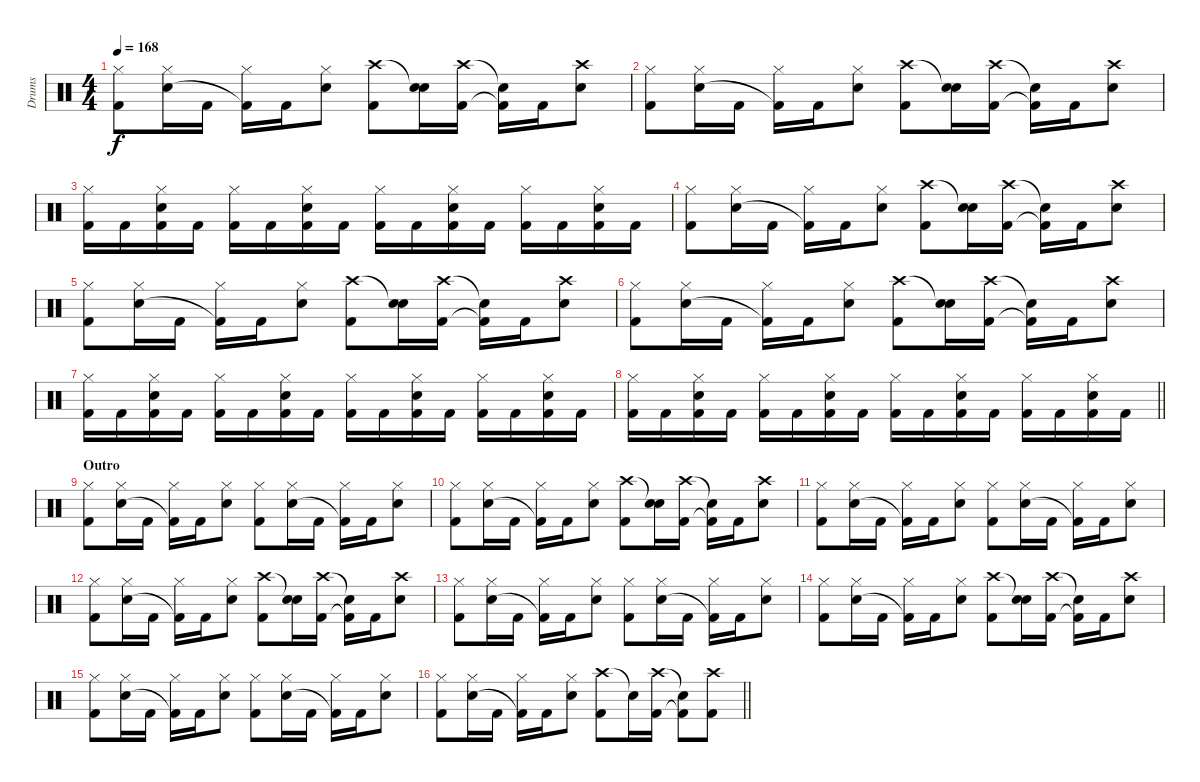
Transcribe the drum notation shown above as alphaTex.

\track ("Drums" "Drums") {instrument percussion}
\staff {score}
\articulation defaults
\ts (4 4)
\tempo 168
\clef neutral
\ks c
("Hi-Hat (closed)" "Kick (hit) 2").8{dy f} ("Hi-Hat (closed)" "Electric Snare (hit)").16 "Kick (hit) 2".16 ("Hi-Hat (closed)" "Kick (hit) 2"{t}).16 "Kick (hit) 2".16 ("Hi-Hat (closed)" "Electric Snare (hit)").8 ("Crash high (hit)" "Kick (hit) 2").8 ("Snare (hit)"{t} "Electric Snare (hit)").16 ("Crash high (hit)" "Kick (hit) 2").16 ("Snare (hit)"{t} "Kick (hit) 2"{t}).16 "Kick (hit) 2".16 ("Crash high (hit)" "Electric Snare (hit)").8 |
("Hi-Hat (closed)" "Kick (hit) 2").8 ("Hi-Hat (closed)" "Electric Snare (hit)").16 "Kick (hit) 2".16 ("Hi-Hat (closed)" "Kick (hit) 2"{t}).16 "Kick (hit) 2".16 ("Hi-Hat (closed)" "Electric Snare (hit)").8 ("Crash high (hit)" "Kick (hit) 2").8 ("Snare (hit)"{t} "Electric Snare (hit)").16 ("Crash high (hit)" "Kick (hit) 2").16 ("Snare (hit)"{t} "Kick (hit) 2"{t}).16 "Kick (hit) 2".16 ("Crash high (hit)" "Electric Snare (hit)").8 |
("Hi-Hat (closed)" "Kick (hit) 2").16 "Kick (hit) 2".16 ("Hi-Hat (closed)" "Electric Snare (hit)" "Kick (hit) 2").16 "Kick (hit) 2".16 ("Hi-Hat (closed)" "Kick (hit) 2").16 "Kick (hit) 2".16 ("Hi-Hat (closed)" "Electric Snare (hit)" "Kick (hit) 2").16 "Kick (hit) 2".16 ("Hi-Hat (closed)" "Kick (hit) 2").16 "Kick (hit) 2".16 ("Hi-Hat (closed)" "Electric Snare (hit)" "Kick (hit) 2").16 "Kick (hit) 2".16 ("Hi-Hat (closed)" "Kick (hit) 2").16 "Kick (hit) 2".16 ("Hi-Hat (closed)" "Electric Snare (hit)" "Kick (hit) 2").16 "Kick (hit) 2".16 |
("Hi-Hat (closed)" "Kick (hit) 2").8 ("Hi-Hat (closed)" "Electric Snare (hit)").16 "Kick (hit) 2".16 ("Hi-Hat (closed)" "Kick (hit) 2"{t}).16 "Kick (hit) 2".16 ("Hi-Hat (closed)" "Electric Snare (hit)").8 ("Crash high (hit)" "Kick (hit) 2").8 ("Snare (hit)"{t} "Electric Snare (hit)").16 ("Crash high (hit)" "Kick (hit) 2").16 ("Snare (hit)"{t} "Kick (hit) 2"{t}).16 "Kick (hit) 2".16 ("Crash high (hit)" "Electric Snare (hit)").8 |
("Hi-Hat (closed)" "Kick (hit) 2").8 ("Hi-Hat (closed)" "Electric Snare (hit)").16 "Kick (hit) 2".16 ("Hi-Hat (closed)" "Kick (hit) 2"{t}).16 "Kick (hit) 2".16 ("Hi-Hat (closed)" "Electric Snare (hit)").8 ("Crash high (hit)" "Kick (hit) 2").8 ("Snare (hit)"{t} "Electric Snare (hit)").16 ("Crash high (hit)" "Kick (hit) 2").16 ("Snare (hit)"{t} "Kick (hit) 2"{t}).16 "Kick (hit) 2".16 ("Crash high (hit)" "Electric Snare (hit)").8 |
("Hi-Hat (closed)" "Kick (hit) 2").8 ("Hi-Hat (closed)" "Electric Snare (hit)").16 "Kick (hit) 2".16 ("Hi-Hat (closed)" "Kick (hit) 2"{t}).16 "Kick (hit) 2".16 ("Hi-Hat (closed)" "Electric Snare (hit)").8 ("Crash high (hit)" "Kick (hit) 2").8 ("Snare (hit)"{t} "Electric Snare (hit)").16 ("Crash high (hit)" "Kick (hit) 2").16 ("Snare (hit)"{t} "Kick (hit) 2"{t}).16 "Kick (hit) 2".16 ("Crash high (hit)" "Electric Snare (hit)").8 |
("Hi-Hat (closed)" "Kick (hit) 2").16 "Kick (hit) 2".16 ("Hi-Hat (closed)" "Electric Snare (hit)" "Kick (hit) 2").16 "Kick (hit) 2".16 ("Hi-Hat (closed)" "Kick (hit) 2").16 "Kick (hit) 2".16 ("Hi-Hat (closed)" "Electric Snare (hit)" "Kick (hit) 2").16 "Kick (hit) 2".16 ("Hi-Hat (closed)" "Kick (hit) 2").16 "Kick (hit) 2".16 ("Hi-Hat (closed)" "Electric Snare (hit)" "Kick (hit) 2").16 "Kick (hit) 2".16 ("Hi-Hat (closed)" "Kick (hit) 2").16 "Kick (hit) 2".16 ("Hi-Hat (closed)" "Electric Snare (hit)" "Kick (hit) 2").16 "Kick (hit) 2".16 |
\barLineRight lightlight
("Hi-Hat (closed)" "Kick (hit) 2").16 "Kick (hit) 2".16 ("Hi-Hat (closed)" "Electric Snare (hit)" "Kick (hit) 2").16 "Kick (hit) 2".16 ("Hi-Hat (closed)" "Kick (hit) 2").16 "Kick (hit) 2".16 ("Hi-Hat (closed)" "Electric Snare (hit)" "Kick (hit) 2").16 "Kick (hit) 2".16 ("Hi-Hat (closed)" "Kick (hit) 2").16 "Kick (hit) 2".16 ("Hi-Hat (closed)" "Electric Snare (hit)" "Kick (hit) 2").16 "Kick (hit) 2".16 ("Hi-Hat (closed)" "Kick (hit) 2").16 "Kick (hit) 2".16 ("Hi-Hat (closed)" "Electric Snare (hit)" "Kick (hit) 2").16 "Kick (hit) 2".16 |
\section ("" "Outro")
("Hi-Hat (closed)" "Kick (hit) 2").8 ("Hi-Hat (closed)" "Electric Snare (hit)").16 "Kick (hit) 2".16 ("Hi-Hat (closed)" "Kick (hit) 2"{t}).16 "Kick (hit) 2".16 ("Hi-Hat (closed)" "Electric Snare (hit)").8 ("Hi-Hat (closed)" "Kick (hit) 2").8 ("Hi-Hat (closed)" "Electric Snare (hit)").16 "Kick (hit) 2".16 ("Hi-Hat (closed)" "Kick (hit) 2"{t}).16 "Kick (hit) 2".16 ("Hi-Hat (closed)" "Electric Snare (hit)").8 |
("Hi-Hat (closed)" "Kick (hit) 2").8 ("Hi-Hat (closed)" "Electric Snare (hit)").16 "Kick (hit) 2".16 ("Hi-Hat (closed)" "Kick (hit) 2"{t}).16 "Kick (hit) 2".16 ("Hi-Hat (closed)" "Electric Snare (hit)").8 ("Crash high (hit)" "Kick (hit) 2").8 ("Snare (hit)"{t} "Electric Snare (hit)").16 ("Crash high (hit)" "Kick (hit) 2").16 ("Snare (hit)"{t} "Kick (hit) 2"{t}).16 "Kick (hit) 2".16 ("Crash high (hit)" "Electric Snare (hit)").8 |
("Hi-Hat (closed)" "Kick (hit) 2").8 ("Hi-Hat (closed)" "Electric Snare (hit)").16 "Kick (hit) 2".16 ("Hi-Hat (closed)" "Kick (hit) 2"{t}).16 "Kick (hit) 2".16 ("Hi-Hat (closed)" "Electric Snare (hit)").8 ("Hi-Hat (closed)" "Kick (hit) 2").8 ("Hi-Hat (closed)" "Electric Snare (hit)").16 "Kick (hit) 2".16 ("Hi-Hat (closed)" "Kick (hit) 2"{t}).16 "Kick (hit) 2".16 ("Hi-Hat (closed)" "Electric Snare (hit)").8 |
("Hi-Hat (closed)" "Kick (hit) 2").8 ("Hi-Hat (closed)" "Electric Snare (hit)").16 "Kick (hit) 2".16 ("Hi-Hat (closed)" "Kick (hit) 2"{t}).16 "Kick (hit) 2".16 ("Hi-Hat (closed)" "Electric Snare (hit)").8 ("Crash high (hit)" "Kick (hit) 2").8 ("Snare (hit)"{t} "Electric Snare (hit)").16 ("Crash high (hit)" "Kick (hit) 2").16 ("Snare (hit)"{t} "Kick (hit) 2"{t}).16 "Kick (hit) 2".16 ("Crash high (hit)" "Electric Snare (hit)").8 |
("Hi-Hat (closed)" "Kick (hit) 2").8 ("Hi-Hat (closed)" "Electric Snare (hit)").16 "Kick (hit) 2".16 ("Hi-Hat (closed)" "Kick (hit) 2"{t}).16 "Kick (hit) 2".16 ("Hi-Hat (closed)" "Electric Snare (hit)").8 ("Hi-Hat (closed)" "Kick (hit) 2").8 ("Hi-Hat (closed)" "Electric Snare (hit)").16 "Kick (hit) 2".16 ("Hi-Hat (closed)" "Kick (hit) 2"{t}).16 "Kick (hit) 2".16 ("Hi-Hat (closed)" "Electric Snare (hit)").8 |
("Hi-Hat (closed)" "Kick (hit) 2").8 ("Hi-Hat (closed)" "Electric Snare (hit)").16 "Kick (hit) 2".16 ("Hi-Hat (closed)" "Kick (hit) 2"{t}).16 "Kick (hit) 2".16 ("Hi-Hat (closed)" "Electric Snare (hit)").8 ("Crash high (hit)" "Kick (hit) 2").8 ("Snare (hit)"{t} "Electric Snare (hit)").16 ("Crash high (hit)" "Kick (hit) 2").16 ("Snare (hit)"{t} "Kick (hit) 2"{t}).16 "Kick (hit) 2".16 ("Crash high (hit)" "Electric Snare (hit)").8 |
("Hi-Hat (closed)" "Kick (hit) 2").8 ("Hi-Hat (closed)" "Electric Snare (hit)").16 "Kick (hit) 2".16 ("Hi-Hat (closed)" "Kick (hit) 2"{t}).16 "Kick (hit) 2".16 ("Hi-Hat (closed)" "Electric Snare (hit)").8 ("Hi-Hat (closed)" "Kick (hit) 2").8 ("Hi-Hat (closed)" "Electric Snare (hit)").16 "Kick (hit) 2".16 ("Hi-Hat (closed)" "Kick (hit) 2"{t}).16 "Kick (hit) 2".16 ("Hi-Hat (closed)" "Electric Snare (hit)").8 |
\barLineRight lightlight
("Hi-Hat (closed)" "Kick (hit) 2").8 ("Hi-Hat (closed)" "Electric Snare (hit)").16 "Kick (hit) 2".16 ("Hi-Hat (closed)" "Kick (hit) 2"{t}).16 "Kick (hit) 2".16 ("Hi-Hat (closed)" "Electric Snare (hit)").8 ("Crash high (hit)" "Kick (hit) 2").8 "Snare (hit)"{t}.16 ("Crash high (hit)" "Kick (hit) 2").16 ("Snare (hit)"{t} "Kick (hit) 2"{t}).8 ("Crash high (hit)" "Kick (hit) 2").8
